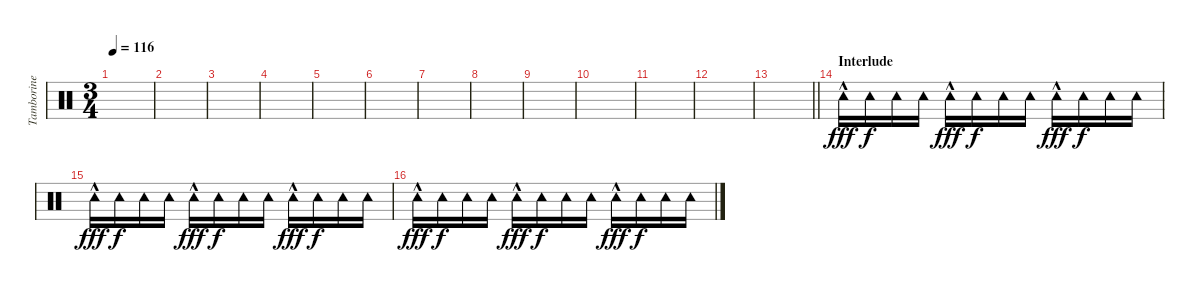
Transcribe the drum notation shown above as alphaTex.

\track ("Tamborine" "Tamborine") {instrument percussion}
\staff {score}
\articulation defaults
\ts (3 4)
\tempo 116
\clef neutral
\ks c
|
|
|
|
|
|
|
|
|
|
|
|
\barLineRight lightlight
|
\section ("" "Interlude")
"Tambourine (hit)"{hac}.16{dy fff} "Tambourine (hit)".16{dy f} "Tambourine (hit)".16 "Tambourine (hit)".16 "Tambourine (hit)"{hac}.16{dy fff} "Tambourine (hit)".16{dy f} "Tambourine (hit)".16 "Tambourine (hit)".16 "Tambourine (hit)"{hac}.16{dy fff} "Tambourine (hit)".16{dy f} "Tambourine (hit)".16 "Tambourine (hit)".16 |
"Tambourine (hit)"{hac}.16{dy fff} "Tambourine (hit)".16{dy f} "Tambourine (hit)".16 "Tambourine (hit)".16 "Tambourine (hit)"{hac}.16{dy fff} "Tambourine (hit)".16{dy f} "Tambourine (hit)".16 "Tambourine (hit)".16 "Tambourine (hit)"{hac}.16{dy fff} "Tambourine (hit)".16{dy f} "Tambourine (hit)".16 "Tambourine (hit)".16 |
"Tambourine (hit)"{hac}.16{dy fff} "Tambourine (hit)".16{dy f} "Tambourine (hit)".16 "Tambourine (hit)".16 "Tambourine (hit)"{hac}.16{dy fff} "Tambourine (hit)".16{dy f} "Tambourine (hit)".16 "Tambourine (hit)".16 "Tambourine (hit)"{hac}.16{dy fff} "Tambourine (hit)".16{dy f} "Tambourine (hit)".16 "Tambourine (hit)".16
